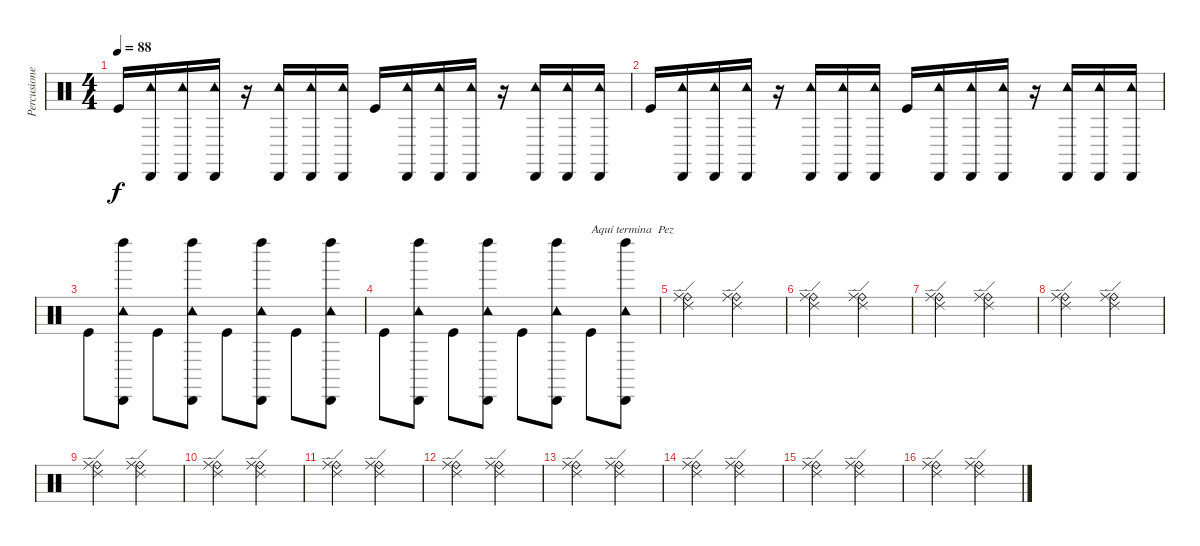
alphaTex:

\track ("Percusiones" "Percusione") {instrument percussion}
\staff {score}
\articulation defaults
\ts (4 4)
\tempo 88
\clef neutral
\ks c "Kick (hit)".16{dy f}
("Tambourine (hit)" "Cabasa (hit)").16 ("Tambourine (hit)" "Cabasa (hit)").16 ("Tambourine (hit)" "Cabasa (hit)").16 r.16 ("Tambourine (hit)" "Cabasa (hit)").16 ("Tambourine (hit)" "Cabasa (hit)").16 ("Tambourine (hit)" "Cabasa (hit)").16 "Kick (hit)".16 ("Tambourine (hit)" "Cabasa (hit)").16 ("Tambourine (hit)" "Cabasa (hit)").16 ("Tambourine (hit)" "Cabasa (hit)").16 r.16 ("Tambourine (hit)" "Cabasa (hit)").16 ("Tambourine (hit)" "Cabasa (hit)").16 ("Tambourine (hit)" "Cabasa (hit)").16 |
"Kick (hit)".16 ("Tambourine (hit)" "Cabasa (hit)").16 ("Tambourine (hit)" "Cabasa (hit)").16 ("Tambourine (hit)" "Cabasa (hit)").16 r.16 ("Tambourine (hit)" "Cabasa (hit)").16 ("Tambourine (hit)" "Cabasa (hit)").16 ("Tambourine (hit)" "Cabasa (hit)").16 "Kick (hit)".16 ("Tambourine (hit)" "Cabasa (hit)").16 ("Tambourine (hit)" "Cabasa (hit)").16 ("Tambourine (hit)" "Cabasa (hit)").16 r.16 ("Tambourine (hit)" "Cabasa (hit)").16 ("Tambourine (hit)" "Cabasa (hit)").16 ("Tambourine (hit)" "Cabasa (hit)").16 |
"Kick (hit)".8 ("Tambourine (hit)" "Left Maraca (hit)" "Cabasa (hit)").8 "Kick (hit)".8 ("Tambourine (hit)" "Left Maraca (hit)" "Cabasa (hit)").8 "Kick (hit)".8 ("Tambourine (hit)" "Left Maraca (hit)" "Cabasa (hit)").8 "Kick (hit)".8 ("Tambourine (hit)" "Left Maraca (hit)" "Cabasa (hit)").8 |
"Kick (hit)".8 ("Tambourine (hit)" "Left Maraca (hit)" "Cabasa (hit)").8 "Kick (hit)".8 ("Tambourine (hit)" "Left Maraca (hit)" "Cabasa (hit)").8 "Kick (hit)".8 ("Tambourine (hit)" "Left Maraca (hit)" "Cabasa (hit)").8 "Kick (hit)".8{txt "Aquí termina  Pez"} ("Tambourine (hit)" "Left Maraca (hit)" "Cabasa (hit)").8 |
("Ride (bell)" "Ride (middle)" "Ride (edge) 2").2 ("Ride (bell)" "Ride (middle)" "Ride (edge) 2").2 |
("Ride (bell)" "Ride (middle)" "Ride (edge) 2").2 ("Ride (bell)" "Ride (middle)" "Ride (edge) 2").2 |
("Ride (bell)" "Ride (middle)" "Ride (edge) 2").2 ("Ride (bell)" "Ride (middle)" "Ride (edge) 2").2 |
("Ride (bell)" "Ride (middle)" "Ride (edge) 2").2 ("Ride (bell)" "Ride (middle)" "Ride (edge) 2").2 |
("Ride (bell)" "Ride (middle)" "Ride (edge) 2").2 ("Ride (bell)" "Ride (middle)" "Ride (edge) 2").2 |
("Ride (bell)" "Ride (middle)" "Ride (edge) 2").2 ("Ride (bell)" "Ride (middle)" "Ride (edge) 2").2 |
("Ride (bell)" "Ride (middle)" "Ride (edge) 2").2 ("Ride (bell)" "Ride (middle)" "Ride (edge) 2").2 |
("Ride (bell)" "Ride (middle)" "Ride (edge) 2").2 ("Ride (bell)" "Ride (middle)" "Ride (edge) 2").2 |
("Ride (bell)" "Ride (middle)" "Ride (edge) 2").2 ("Ride (bell)" "Ride (middle)" "Ride (edge) 2").2 |
("Ride (bell)" "Ride (middle)" "Ride (edge) 2").2 ("Ride (bell)" "Ride (middle)" "Ride (edge) 2").2 |
("Ride (bell)" "Ride (middle)" "Ride (edge) 2").2 ("Ride (bell)" "Ride (middle)" "Ride (edge) 2").2 |
("Ride (bell)" "Ride (middle)" "Ride (edge) 2").2 ("Ride (bell)" "Ride (middle)" "Ride (edge) 2").2
